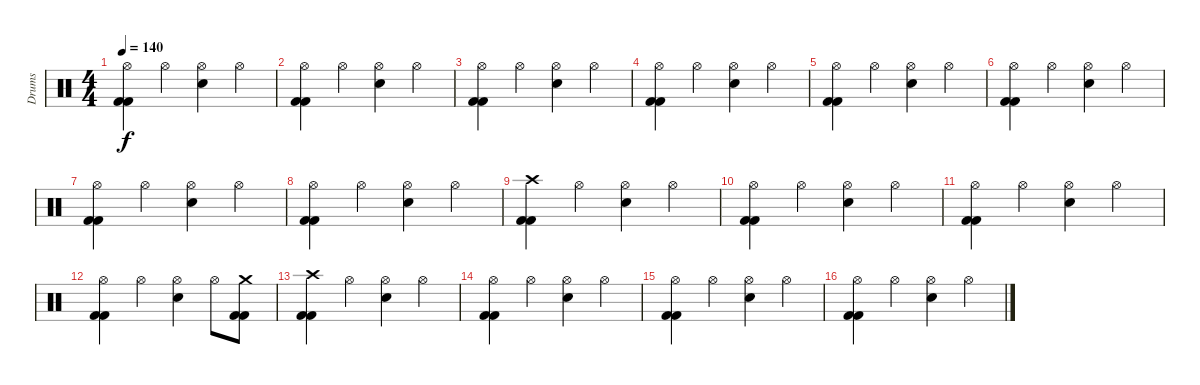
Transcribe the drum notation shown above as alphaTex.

\track ("Drums" "Drums") {instrument percussion}
\staff {score}
\articulation defaults
\ts (4 4)
\tempo 140
\clef neutral
\ks c
("Hi-Hat (open)" "Kick (hit) 2" "Kick (hit) 2").4{dy f} "Hi-Hat (open)".4 ("Hi-Hat (open)" "Electric Snare (hit)").4 "Hi-Hat (open)".4 |
("Hi-Hat (open)" "Kick (hit) 2" "Kick (hit) 2").4 "Hi-Hat (open)".4 ("Hi-Hat (open)" "Electric Snare (hit)").4 "Hi-Hat (open)".4 |
("Hi-Hat (open)" "Kick (hit) 2" "Kick (hit) 2").4 "Hi-Hat (open)".4 ("Hi-Hat (open)" "Electric Snare (hit)").4 "Hi-Hat (open)".4 |
("Hi-Hat (open)" "Kick (hit) 2" "Kick (hit) 2").4 "Hi-Hat (open)".4 ("Hi-Hat (open)" "Electric Snare (hit)").4 "Hi-Hat (open)".4 |
("Hi-Hat (open)" "Kick (hit) 2" "Kick (hit) 2").4 "Hi-Hat (open)".4 ("Hi-Hat (open)" "Electric Snare (hit)").4 "Hi-Hat (open)".4 |
("Hi-Hat (open)" "Kick (hit) 2" "Kick (hit) 2").4 "Hi-Hat (open)".4 ("Hi-Hat (open)" "Electric Snare (hit)").4 "Hi-Hat (open)".4 |
("Hi-Hat (open)" "Kick (hit) 2" "Kick (hit) 2").4 "Hi-Hat (open)".4 ("Hi-Hat (open)" "Electric Snare (hit)").4 "Hi-Hat (open)".4 |
("Hi-Hat (open)" "Kick (hit) 2" "Kick (hit) 2").4 "Hi-Hat (open)".4 ("Hi-Hat (open)" "Electric Snare (hit)").4 "Hi-Hat (open)".4 |
("Crash high (hit)" "Kick (hit) 2" "Kick (hit) 2").4 "Hi-Hat (open)".4 ("Hi-Hat (open)" "Electric Snare (hit)").4 "Hi-Hat (open)".4 |
("Hi-Hat (open)" "Kick (hit) 2" "Kick (hit) 2").4 "Hi-Hat (open)".4 ("Hi-Hat (open)" "Electric Snare (hit)").4 "Hi-Hat (open)".4 |
("Hi-Hat (open)" "Kick (hit) 2" "Kick (hit) 2").4 "Hi-Hat (open)".4 ("Hi-Hat (open)" "Electric Snare (hit)").4 "Hi-Hat (open)".4 |
("Hi-Hat (open)" "Kick (hit) 2" "Kick (hit) 2").4 "Hi-Hat (open)".4 ("Hi-Hat (open)" "Electric Snare (hit)").4 "Hi-Hat (open)".8 ("Crash medium (hit)" "Kick (hit) 2" "Kick (hit) 2").8 |
("Crash high (hit)" "Kick (hit) 2" "Kick (hit) 2").4 "Hi-Hat (open)".4 ("Hi-Hat (open)" "Electric Snare (hit)").4 "Hi-Hat (open)".4 |
("Hi-Hat (open)" "Kick (hit) 2" "Kick (hit) 2").4 "Hi-Hat (open)".4 ("Hi-Hat (open)" "Electric Snare (hit)").4 "Hi-Hat (open)".4 |
("Hi-Hat (open)" "Kick (hit) 2" "Kick (hit) 2").4 "Hi-Hat (open)".4 ("Hi-Hat (open)" "Electric Snare (hit)").4 "Hi-Hat (open)".4 |
("Hi-Hat (open)" "Kick (hit) 2" "Kick (hit) 2").4 "Hi-Hat (open)".4 ("Hi-Hat (open)" "Electric Snare (hit)").4 "Hi-Hat (open)".4
